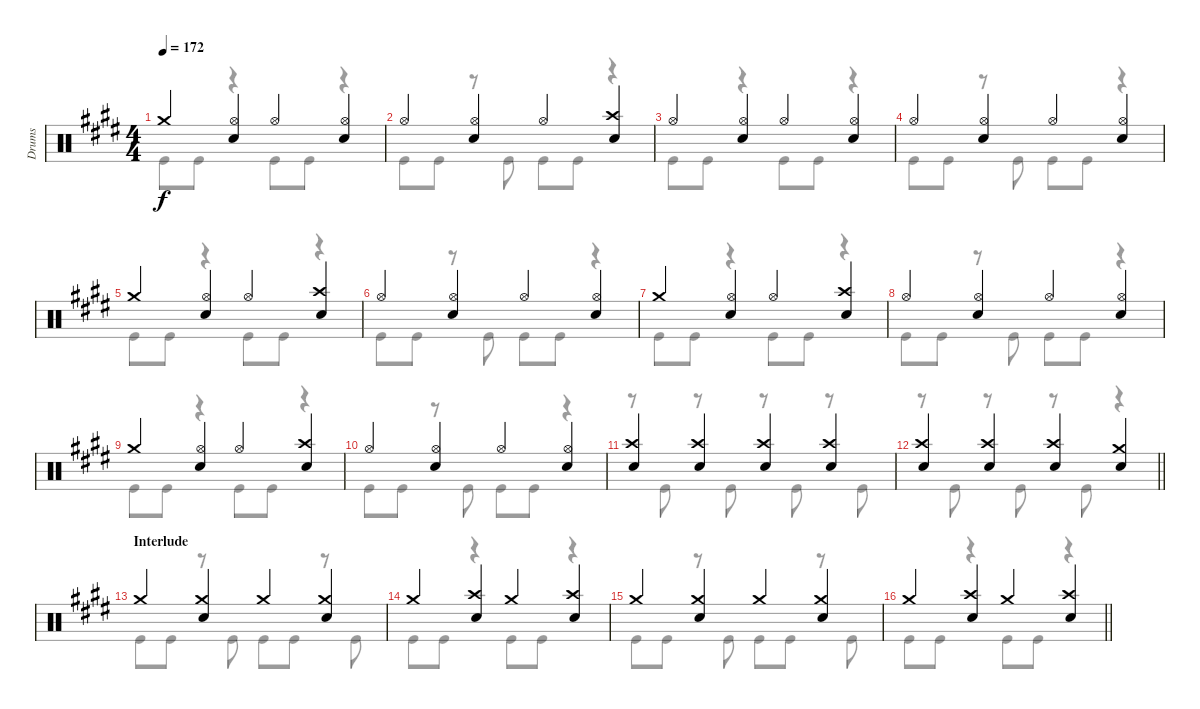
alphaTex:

\track ("Drums" "Drums") {instrument percussion}
\staff {score}
\articulation defaults
\voice
\ts (4 4)
\tempo 172
\clef neutral
\ks e "Crash medium (hit)".4{dy f}
("Hi-Hat (open)" "Electric Snare (hit)").4 "Hi-Hat (open)".4 ("Hi-Hat (open)" "Electric Snare (hit)").4 |
"Hi-Hat (open)".4 ("Hi-Hat (open)" "Electric Snare (hit)").4 "Hi-Hat (open)".4 ("Crash high (hit)" "Electric Snare (hit)").4 |
"Hi-Hat (open)".4 ("Hi-Hat (open)" "Electric Snare (hit)").4 "Hi-Hat (open)".4 ("Hi-Hat (open)" "Electric Snare (hit)").4 |
"Hi-Hat (open)".4 ("Hi-Hat (open)" "Electric Snare (hit)").4 "Hi-Hat (open)".4 ("Hi-Hat (open)" "Electric Snare (hit)").4 |
"Crash medium (hit)".4 ("Hi-Hat (open)" "Electric Snare (hit)").4 "Hi-Hat (open)".4 ("Crash high (hit)" "Electric Snare (hit)").4 |
"Hi-Hat (open)".4 ("Hi-Hat (open)" "Electric Snare (hit)").4 "Hi-Hat (open)".4 ("Hi-Hat (open)" "Electric Snare (hit)").4 |
"Crash medium (hit)".4 ("Hi-Hat (open)" "Electric Snare (hit)").4 "Hi-Hat (open)".4 ("Crash high (hit)" "Electric Snare (hit)").4 |
"Hi-Hat (open)".4 ("Hi-Hat (open)" "Electric Snare (hit)").4 "Hi-Hat (open)".4 ("Hi-Hat (open)" "Electric Snare (hit)").4 |
"Crash medium (hit)".4 ("Hi-Hat (open)" "Electric Snare (hit)").4 "Hi-Hat (open)".4 ("Crash high (hit)" "Electric Snare (hit)").4 |
"Hi-Hat (open)".4 ("Hi-Hat (open)" "Electric Snare (hit)").4 "Hi-Hat (open)".4 ("Hi-Hat (open)" "Electric Snare (hit)").4 |
("Crash high (hit)" "Electric Snare (hit)").4 ("Crash high (hit)" "Electric Snare (hit)").4 ("Crash high (hit)" "Electric Snare (hit)").4 ("Crash high (hit)" "Electric Snare (hit)").4 |
\barLineRight lightlight
("Crash high (hit)" "Electric Snare (hit)").4 ("Crash high (hit)" "Electric Snare (hit)").4 ("Crash high (hit)" "Electric Snare (hit)").4 ("Crash medium (hit)" "Electric Snare (hit)").4 |
\section ("" "Interlude")
"Crash medium (hit)".4 ("Crash medium (hit)" "Electric Snare (hit)").4 "Crash medium (hit)".4 ("Crash medium (hit)" "Electric Snare (hit)").4 |
"Crash medium (hit)".4 ("Crash high (hit)" "Electric Snare (hit)").4 "Crash medium (hit)".4 ("Crash high (hit)" "Electric Snare (hit)").4 |
"Crash medium (hit)".4 ("Crash medium (hit)" "Electric Snare (hit)").4 "Crash medium (hit)".4 ("Crash medium (hit)" "Electric Snare (hit)").4 |
\barLineRight lightlight "Crash medium (hit)".4
("Crash high (hit)" "Electric Snare (hit)").4 "Crash medium (hit)".4 ("Crash high (hit)" "Electric Snare (hit)").4
\voice
\clef neutral
\ottava regular
\simile none
\ks e "Kick (hit)".8{dy f} "Kick (hit)".8
r.4 "Kick (hit)".8 "Kick (hit)".8 r.4 |
"Kick (hit)".8 "Kick (hit)".8 r.8 "Kick (hit)".8 "Kick (hit)".8 "Kick (hit)".8 r.4 |
"Kick (hit)".8 "Kick (hit)".8 r.4 "Kick (hit)".8 "Kick (hit)".8 r.4 |
"Kick (hit)".8 "Kick (hit)".8 r.8 "Kick (hit)".8 "Kick (hit)".8 "Kick (hit)".8 r.4 |
"Kick (hit)".8 "Kick (hit)".8 r.4 "Kick (hit)".8 "Kick (hit)".8 r.4 |
"Kick (hit)".8 "Kick (hit)".8 r.8 "Kick (hit)".8 "Kick (hit)".8 "Kick (hit)".8 r.4 |
"Kick (hit)".8 "Kick (hit)".8 r.4 "Kick (hit)".8 "Kick (hit)".8 r.4 |
"Kick (hit)".8 "Kick (hit)".8 r.8 "Kick (hit)".8 "Kick (hit)".8 "Kick (hit)".8 r.4 |
"Kick (hit)".8 "Kick (hit)".8 r.4 "Kick (hit)".8 "Kick (hit)".8 r.4 |
"Kick (hit)".8 "Kick (hit)".8 r.8 "Kick (hit)".8 "Kick (hit)".8 "Kick (hit)".8 r.4 |
r.8 "Kick (hit)".8 r.8 "Kick (hit)".8 r.8 "Kick (hit)".8 r.8 "Kick (hit)".8 |
\barLineRight lightlight
r.8 "Kick (hit)".8 r.8 "Kick (hit)".8 r.8 "Kick (hit)".8 r.4 |
"Kick (hit)".8 "Kick (hit)".8 r.8 "Kick (hit)".8 "Kick (hit)".8 "Kick (hit)".8 r.8 "Kick (hit)".8 |
"Kick (hit)".8 "Kick (hit)".8 r.4 "Kick (hit)".8 "Kick (hit)".8 r.4 |
"Kick (hit)".8 "Kick (hit)".8 r.8 "Kick (hit)".8 "Kick (hit)".8 "Kick (hit)".8 r.8 "Kick (hit)".8 |
\barLineRight lightlight "Kick (hit)".8 "Kick (hit)".8
r.4 "Kick (hit)".8 "Kick (hit)".8 r.4
